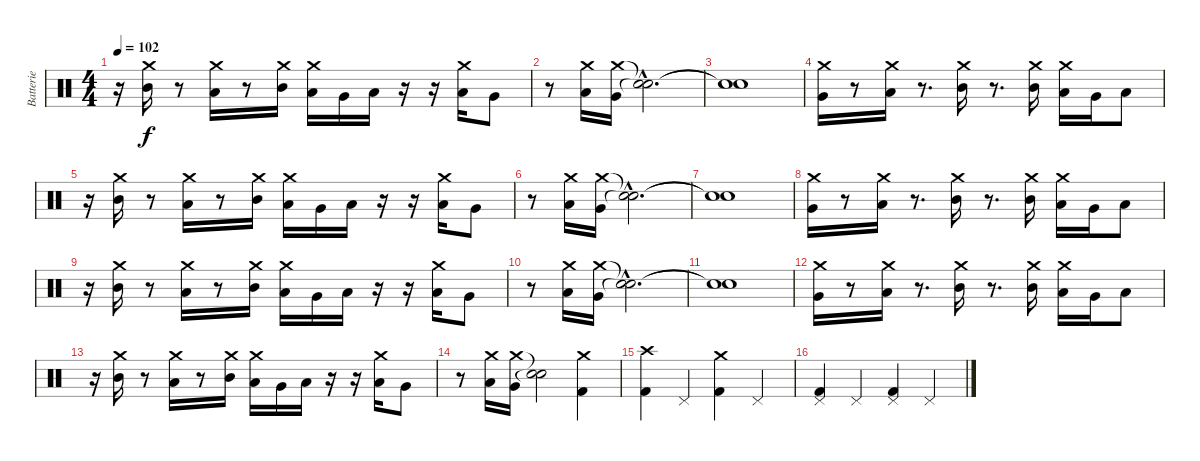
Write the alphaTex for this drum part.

\track ("Batterie" "Batterie") {instrument percussion}
\staff {score}
\articulation defaults
\ts (4 4)
\tempo 102
\clef neutral
\ks c
r.16{dy f} ("Crash medium (hit)" "Mid Tom (hit)").16 r.8 ("Crash medium (hit)" "Low Tom (hit)").16 r.8 ("Crash medium (hit)" "Mid Tom (hit)").16 ("Crash medium (hit)" "Low Tom (hit)").16 "Very Low Tom (hit)".16 "Low Floor Tom (hit)".16 r.16 r.16 ("Crash medium (hit)" "Low Tom (hit)").16 "Very Low Tom (hit)".8 |
r.8 ("Crash medium (hit)" "Low Tom (hit)").16 ("Crash medium (hit)" "Very Low Tom (hit)").16 ("Snare (hit)"{hac t} "Snare (hit)"{hac t}).2{d} |
("Snare (hit)"{t} "Snare (hit)"{t}).1 |
("Crash medium (hit)" "Very Low Tom (hit)").16 r.8 ("Crash medium (hit)" "Low Tom (hit)").16 r.8{d} ("Crash medium (hit)" "Mid Tom (hit)").16 r.8{d} ("Crash medium (hit)" "Mid Tom (hit)").16 ("Crash medium (hit)" "Low Tom (hit)").16 "Very Low Tom (hit)".16 "Low Floor Tom (hit)".8 |
r.16 ("Crash medium (hit)" "Mid Tom (hit)").16 r.8 ("Crash medium (hit)" "Low Tom (hit)").16 r.8 ("Crash medium (hit)" "Mid Tom (hit)").16 ("Crash medium (hit)" "Low Tom (hit)").16 "Very Low Tom (hit)".16 "Low Floor Tom (hit)".16 r.16 r.16 ("Crash medium (hit)" "Low Tom (hit)").16 "Very Low Tom (hit)".8 |
r.8 ("Crash medium (hit)" "Low Tom (hit)").16 ("Crash medium (hit)" "Very Low Tom (hit)").16 ("Snare (hit)"{hac t} "Snare (hit)"{hac t}).2{d} |
("Snare (hit)"{t} "Snare (hit)"{t}).1 |
("Crash medium (hit)" "Very Low Tom (hit)").16 r.8 ("Crash medium (hit)" "Low Tom (hit)").16 r.8{d} ("Crash medium (hit)" "Mid Tom (hit)").16 r.8{d} ("Crash medium (hit)" "Mid Tom (hit)").16 ("Crash medium (hit)" "Low Tom (hit)").16 "Very Low Tom (hit)".16 "Low Floor Tom (hit)".8 |
r.16 ("Crash medium (hit)" "Mid Tom (hit)").16 r.8 ("Crash medium (hit)" "Low Tom (hit)").16 r.8 ("Crash medium (hit)" "Mid Tom (hit)").16 ("Crash medium (hit)" "Low Tom (hit)").16 "Very Low Tom (hit)".16 "Low Floor Tom (hit)".16 r.16 r.16 ("Crash medium (hit)" "Low Tom (hit)").16 "Very Low Tom (hit)".8 |
r.8 ("Crash medium (hit)" "Low Tom (hit)").16 ("Crash medium (hit)" "Very Low Tom (hit)").16 ("Snare (hit)"{hac t} "Snare (hit)"{hac t}).2{d} |
("Snare (hit)"{t} "Snare (hit)"{t}).1 |
("Crash medium (hit)" "Very Low Tom (hit)").16 r.8 ("Crash medium (hit)" "Low Tom (hit)").16 r.8{d} ("Crash medium (hit)" "Mid Tom (hit)").16 r.8{d} ("Crash medium (hit)" "Mid Tom (hit)").16 ("Crash medium (hit)" "Low Tom (hit)").16 "Very Low Tom (hit)".16 "Low Floor Tom (hit)".8 |
r.16 ("Crash medium (hit)" "Mid Tom (hit)").16 r.8 ("Crash medium (hit)" "Low Tom (hit)").16 r.8 ("Crash medium (hit)" "Mid Tom (hit)").16 ("Crash medium (hit)" "Low Tom (hit)").16 "Very Low Tom (hit)".16 "Low Floor Tom (hit)".16 r.16 r.16 ("Crash medium (hit)" "Low Tom (hit)").16 "Very Low Tom (hit)".8 |
r.8 ("Crash medium (hit)" "Low Tom (hit)").16 ("Crash medium (hit)" "Very Low Tom (hit)").16 ("Snare (hit)"{t} "Snare (hit)"{t}).2 ("Crash medium (hit)" "Kick (hit) 2").4 |
("Crash high (hit)" "Kick (hit) 2").4 "Pedal Hi-Hat (hit)".4 ("Crash medium (hit)" "Kick (hit) 2").4 "Pedal Hi-Hat (hit)".4 |
("Pedal Hi-Hat (hit)" "Kick (hit) 2").4 "Pedal Hi-Hat (hit)".4 ("Pedal Hi-Hat (hit)" "Kick (hit) 2").4 "Pedal Hi-Hat (hit)".4
